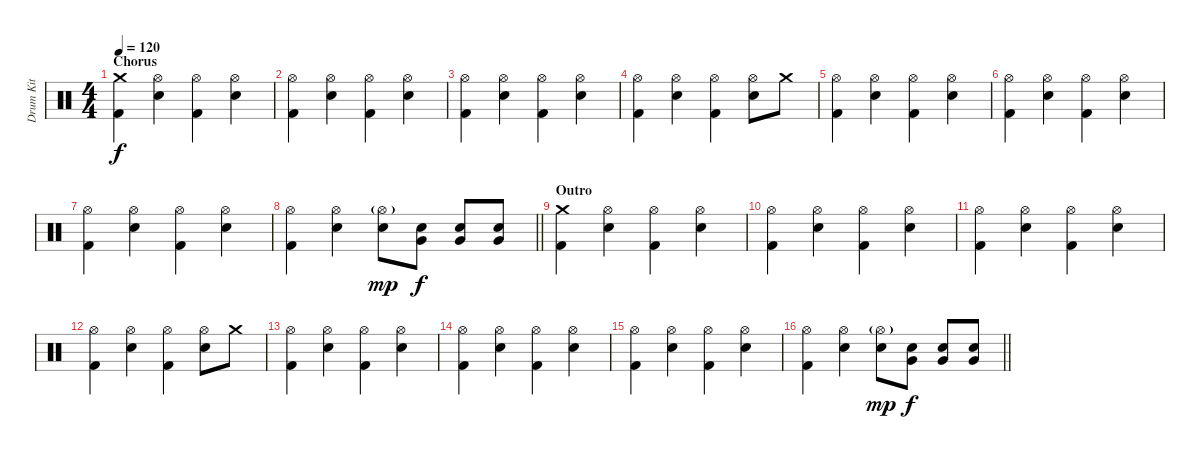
\track ("Drum Kit" "Drum Kit") {instrument percussion}
\staff {score}
\articulation defaults
\ts (4 4)
\section ("" "Chorus")
\tempo 120
\clef neutral
\ks c
("Crash medium (hit)" "Kick (hit) 2").4{dy f} ("Hi-Hat (open)" "Electric Snare (hit)").4 ("Hi-Hat (open)" "Kick (hit) 2").4 ("Hi-Hat (open)" "Electric Snare (hit)").4 |
("Hi-Hat (open)" "Kick (hit) 2").4 ("Hi-Hat (open)" "Electric Snare (hit)").4 ("Hi-Hat (open)" "Kick (hit) 2").4 ("Hi-Hat (open)" "Electric Snare (hit)").4 |
("Hi-Hat (open)" "Kick (hit) 2").4 ("Hi-Hat (open)" "Electric Snare (hit)").4 ("Hi-Hat (open)" "Kick (hit) 2").4 ("Hi-Hat (open)" "Electric Snare (hit)").4 |
("Hi-Hat (open)" "Kick (hit) 2").4 ("Hi-Hat (open)" "Electric Snare (hit)").4 ("Hi-Hat (open)" "Kick (hit) 2").4 ("Hi-Hat (open)" "Electric Snare (hit)").8 "Crash medium (hit)".8 |
("Hi-Hat (open)" "Kick (hit) 2").4 ("Hi-Hat (open)" "Electric Snare (hit)").4 ("Hi-Hat (open)" "Kick (hit) 2").4 ("Hi-Hat (open)" "Electric Snare (hit)").4 |
("Hi-Hat (open)" "Kick (hit) 2").4 ("Hi-Hat (open)" "Electric Snare (hit)").4 ("Hi-Hat (open)" "Kick (hit) 2").4 ("Hi-Hat (open)" "Electric Snare (hit)").4 |
("Hi-Hat (open)" "Kick (hit) 2").4 ("Hi-Hat (open)" "Electric Snare (hit)").4 ("Hi-Hat (open)" "Kick (hit) 2").4 ("Hi-Hat (open)" "Electric Snare (hit)").4 |
\barLineRight lightlight
("Hi-Hat (open)" "Kick (hit) 2").4 ("Hi-Hat (open)" "Electric Snare (hit)").4 ("Hi-Hat (open)"{g} "Electric Snare (hit)").8{dy mp} ("Electric Snare (hit)" "Very Low Tom (hit)").8{dy f} ("Electric Snare (hit)" "Very Low Tom (hit)").8 ("Electric Snare (hit)" "Very Low Tom (hit)").8 |
\section ("" "Outro")
("Crash medium (hit)" "Kick (hit) 2").4 ("Hi-Hat (open)" "Electric Snare (hit)").4 ("Hi-Hat (open)" "Kick (hit) 2").4 ("Hi-Hat (open)" "Electric Snare (hit)").4 |
("Hi-Hat (open)" "Kick (hit) 2").4 ("Hi-Hat (open)" "Electric Snare (hit)").4 ("Hi-Hat (open)" "Kick (hit) 2").4 ("Hi-Hat (open)" "Electric Snare (hit)").4 |
("Hi-Hat (open)" "Kick (hit) 2").4 ("Hi-Hat (open)" "Electric Snare (hit)").4 ("Hi-Hat (open)" "Kick (hit) 2").4 ("Hi-Hat (open)" "Electric Snare (hit)").4 |
("Hi-Hat (open)" "Kick (hit) 2").4 ("Hi-Hat (open)" "Electric Snare (hit)").4 ("Hi-Hat (open)" "Kick (hit) 2").4 ("Hi-Hat (open)" "Electric Snare (hit)").8 "Crash medium (hit)".8 |
("Hi-Hat (open)" "Kick (hit) 2").4 ("Hi-Hat (open)" "Electric Snare (hit)").4 ("Hi-Hat (open)" "Kick (hit) 2").4 ("Hi-Hat (open)" "Electric Snare (hit)").4 |
("Hi-Hat (open)" "Kick (hit) 2").4 ("Hi-Hat (open)" "Electric Snare (hit)").4 ("Hi-Hat (open)" "Kick (hit) 2").4 ("Hi-Hat (open)" "Electric Snare (hit)").4 |
("Hi-Hat (open)" "Kick (hit) 2").4 ("Hi-Hat (open)" "Electric Snare (hit)").4 ("Hi-Hat (open)" "Kick (hit) 2").4 ("Hi-Hat (open)" "Electric Snare (hit)").4 |
\barLineRight lightlight
("Hi-Hat (open)" "Kick (hit) 2").4 ("Hi-Hat (open)" "Electric Snare (hit)").4 ("Hi-Hat (open)"{g} "Electric Snare (hit)").8{dy mp} ("Electric Snare (hit)" "Very Low Tom (hit)").8{dy f} ("Electric Snare (hit)" "Very Low Tom (hit)").8 ("Electric Snare (hit)" "Very Low Tom (hit)").8
